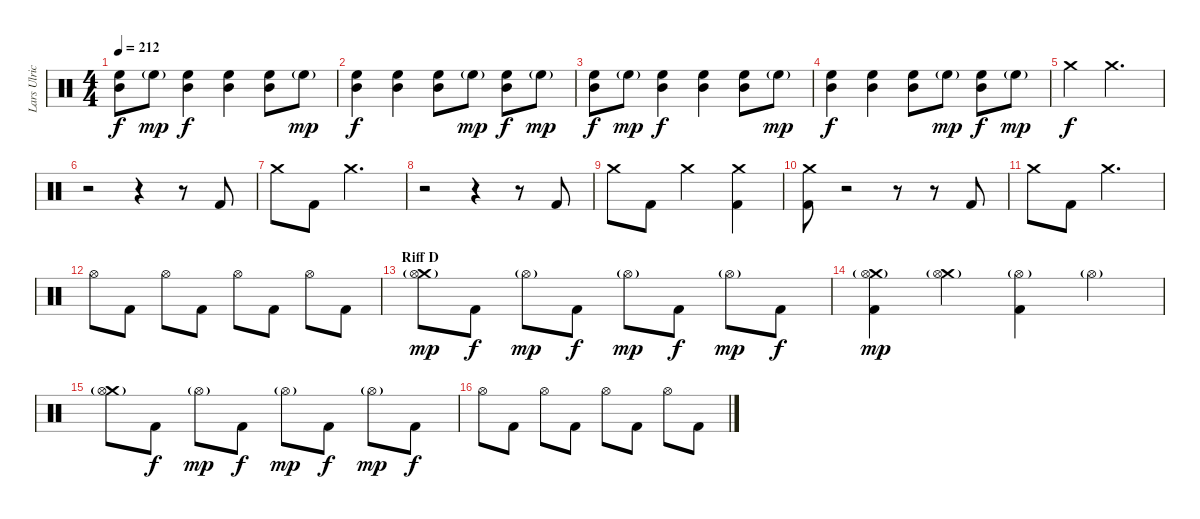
\track ("Lars Ulrich" "Lars Ulric") {instrument percussion}
\staff {score}
\articulation defaults
\ts (4 4)
\tempo 212
\clef neutral
\ks c
("Mid Tom (hit)" "High Floor Tom (hit)").8{dy f} "High Floor Tom (hit)"{g}.8{dy mp} ("Mid Tom (hit)" "High Floor Tom (hit)").4{dy f} ("Mid Tom (hit)" "High Floor Tom (hit)").4 ("Mid Tom (hit)" "High Floor Tom (hit)").8 "High Floor Tom (hit)"{g}.8{dy mp} |
("Mid Tom (hit)" "High Floor Tom (hit)").4{dy f} ("Mid Tom (hit)" "High Floor Tom (hit)").4 ("Mid Tom (hit)" "High Floor Tom (hit)").8 "High Floor Tom (hit)"{g}.8{dy mp} ("Mid Tom (hit)" "High Floor Tom (hit)").8{dy f} "High Floor Tom (hit)"{g}.8{dy mp} |
("Mid Tom (hit)" "High Floor Tom (hit)").8{dy f} "High Floor Tom (hit)"{g}.8{dy mp} ("Mid Tom (hit)" "High Floor Tom (hit)").4{dy f} ("Mid Tom (hit)" "High Floor Tom (hit)").4 ("Mid Tom (hit)" "High Floor Tom (hit)").8 "High Floor Tom (hit)"{g}.8{dy mp} |
("Mid Tom (hit)" "High Floor Tom (hit)").4{dy f} ("Mid Tom (hit)" "High Floor Tom (hit)").4 ("Mid Tom (hit)" "High Floor Tom (hit)").8 "High Floor Tom (hit)"{g}.8{dy mp} ("Mid Tom (hit)" "High Floor Tom (hit)").8{dy f} "High Floor Tom (hit)"{g}.8{dy mp} |
"Crash medium (hit)".4{dy f} "Crash medium (hit)".2{d} |
r.2 r.4 r.8 "Kick (hit) 2".8 |
"Crash medium (hit)".8 "Kick (hit) 2".8 "Crash medium (hit)".2{d} |
r.2 r.4 r.8 "Kick (hit) 2".8 |
"Crash medium (hit)".8 "Kick (hit) 2".8 "Crash medium (hit)".2 ("Crash medium (hit)" "Kick (hit) 2").4 |
("Crash medium (hit)" "Kick (hit) 2").8 r.2{volume 0} r.8 r.8 "Kick (hit) 2".8{volume 14} |
"Crash medium (hit)".8 "Kick (hit) 2".8 "Crash medium (hit)".2{d} |
"Hi-Hat (open)".8 "Kick (hit) 2".8 "Hi-Hat (open)".8 "Kick (hit) 2".8 "Hi-Hat (open)".8 "Kick (hit) 2".8 "Hi-Hat (open)".8 "Kick (hit) 2".8 |
\section ("" "Riff D")
("Crash medium (hit)" "Hi-Hat (open)"{g}).8{dy mp} "Kick (hit) 2".8{dy f} "Hi-Hat (open)"{g}.8{dy mp} "Kick (hit) 2".8{dy f} "Hi-Hat (open)"{g}.8{dy mp} "Kick (hit) 2".8{dy f} "Hi-Hat (open)"{g}.8{dy mp} "Kick (hit) 2".8{dy f} |
("Crash medium (hit)" "Hi-Hat (open)"{g} "Kick (hit) 2").4{dy mp} ("Crash medium (hit)" "Hi-Hat (open)"{g}).4 ("Hi-Hat (open)"{g} "Kick (hit) 2").4 "Hi-Hat (open)"{g}.4 |
("Crash medium (hit)" "Hi-Hat (open)"{g}).8 "Kick (hit) 2".8{dy f} "Hi-Hat (open)"{g}.8{dy mp} "Kick (hit) 2".8{dy f} "Hi-Hat (open)"{g}.8{dy mp} "Kick (hit) 2".8{dy f} "Hi-Hat (open)"{g}.8{dy mp} "Kick (hit) 2".8{dy f} |
"Hi-Hat (open)".8 "Kick (hit) 2".8 "Hi-Hat (open)".8 "Kick (hit) 2".8 "Hi-Hat (open)".8 "Kick (hit) 2".8 "Hi-Hat (open)".8 "Kick (hit) 2".8
